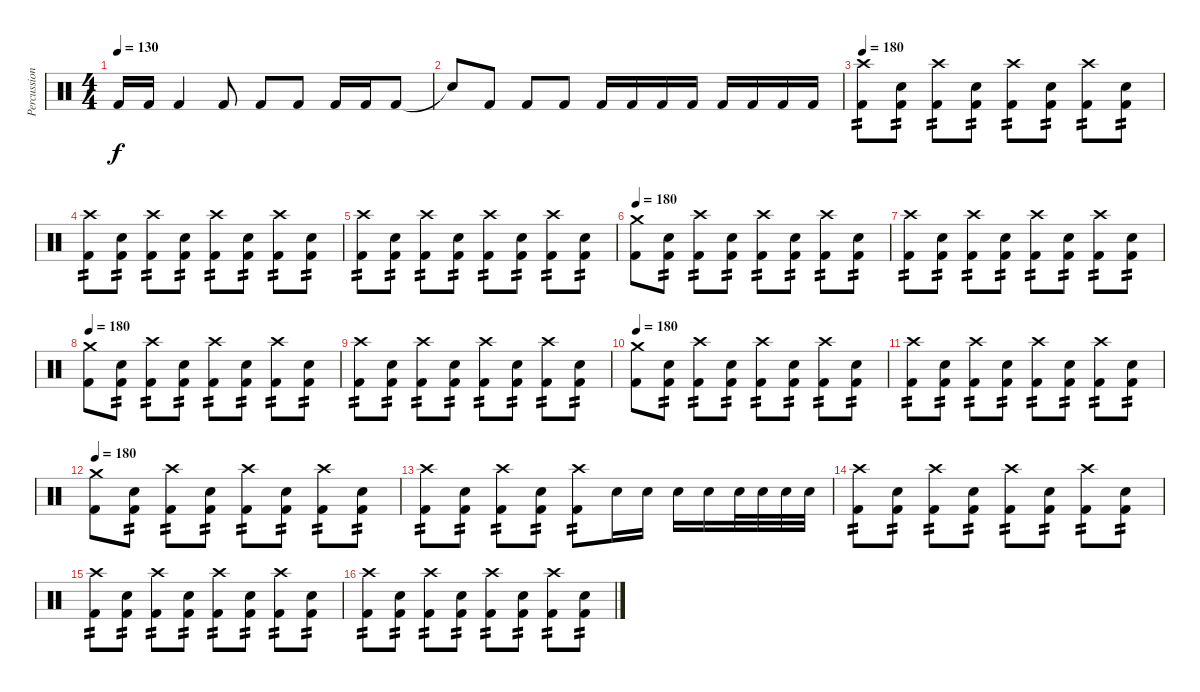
\track ("Percussion" "Percussion") {instrument percussion}
\staff {score}
\articulation defaults
\ts (4 4)
\tempo 130
\clef neutral
\ks c "Kick (hit) 2".16{dy f} "Kick (hit) 2".16 "Kick (hit) 2".4 "Kick (hit) 2".8 "Kick (hit) 2".8 "Kick (hit) 2".8 "Kick (hit) 2".16 "Kick (hit) 2".16 "Kick (hit) 2".8
|
"Snare (hit)"{t}.8 "Kick (hit) 2".8 "Kick (hit) 2".8 "Kick (hit) 2".8 "Kick (hit) 2".16 "Kick (hit) 2".16 "Kick (hit) 2".16 "Kick (hit) 2".16 "Kick (hit) 2".16 "Kick (hit) 2".16 "Kick (hit) 2".16 "Kick (hit) 2".16 |
\tempo 180
("Crash high (hit)" "Kick (hit) 2").8{tp 2} ("Electric Snare (hit)" "Kick (hit) 2").8{tp 2} ("Crash high (hit)" "Kick (hit) 2").8{tp 2} ("Electric Snare (hit)" "Kick (hit) 2").8{tp 2} ("Crash high (hit)" "Kick (hit) 2").8{tp 2} ("Electric Snare (hit)" "Kick (hit) 2").8{tp 2} ("Crash high (hit)" "Kick (hit) 2").8{tp 2} ("Electric Snare (hit)" "Kick (hit) 2").8{tp 2} |
("Crash high (hit)" "Kick (hit) 2").8{tp 2} ("Electric Snare (hit)" "Kick (hit) 2").8{tp 2} ("Crash high (hit)" "Kick (hit) 2").8{tp 2} ("Electric Snare (hit)" "Kick (hit) 2").8{tp 2} ("Crash high (hit)" "Kick (hit) 2").8{tp 2} ("Electric Snare (hit)" "Kick (hit) 2").8{tp 2} ("Crash high (hit)" "Kick (hit) 2").8{tp 2} ("Electric Snare (hit)" "Kick (hit) 2").8{tp 2} |
("Crash high (hit)" "Kick (hit) 2").8{tp 2} ("Electric Snare (hit)" "Kick (hit) 2").8{tp 2} ("Crash high (hit)" "Kick (hit) 2").8{tp 2} ("Electric Snare (hit)" "Kick (hit) 2").8{tp 2} ("Crash high (hit)" "Kick (hit) 2").8{tp 2} ("Electric Snare (hit)" "Kick (hit) 2").8{tp 2} ("Crash high (hit)" "Kick (hit) 2").8{tp 2} ("Electric Snare (hit)" "Kick (hit) 2").8{tp 2} |
\tempo 180
("Crash medium (hit)" "Kick (hit) 2").8 ("Electric Snare (hit)" "Kick (hit) 2").8{tp 2} ("Crash high (hit)" "Kick (hit) 2").8{tp 2} ("Electric Snare (hit)" "Kick (hit) 2").8{tp 2} ("Crash high (hit)" "Kick (hit) 2").8{tp 2} ("Electric Snare (hit)" "Kick (hit) 2").8{tp 2} ("Crash high (hit)" "Kick (hit) 2").8{tp 2} ("Electric Snare (hit)" "Kick (hit) 2").8{tp 2} |
("Crash high (hit)" "Kick (hit) 2").8{tp 2} ("Electric Snare (hit)" "Kick (hit) 2").8{tp 2} ("Crash high (hit)" "Kick (hit) 2").8{tp 2} ("Electric Snare (hit)" "Kick (hit) 2").8{tp 2} ("Crash high (hit)" "Kick (hit) 2").8{tp 2} ("Electric Snare (hit)" "Kick (hit) 2").8{tp 2} ("Crash high (hit)" "Kick (hit) 2").8{tp 2} ("Electric Snare (hit)" "Kick (hit) 2").8{tp 2} |
\tempo 180
("Crash medium (hit)" "Kick (hit) 2").8 ("Electric Snare (hit)" "Kick (hit) 2").8{tp 2} ("Crash high (hit)" "Kick (hit) 2").8{tp 2} ("Electric Snare (hit)" "Kick (hit) 2").8{tp 2} ("Crash high (hit)" "Kick (hit) 2").8{tp 2} ("Electric Snare (hit)" "Kick (hit) 2").8{tp 2} ("Crash high (hit)" "Kick (hit) 2").8{tp 2} ("Electric Snare (hit)" "Kick (hit) 2").8{tp 2} |
("Crash high (hit)" "Kick (hit) 2").8{tp 2} ("Electric Snare (hit)" "Kick (hit) 2").8{tp 2} ("Crash high (hit)" "Kick (hit) 2").8{tp 2} ("Electric Snare (hit)" "Kick (hit) 2").8{tp 2} ("Crash high (hit)" "Kick (hit) 2").8{tp 2} ("Electric Snare (hit)" "Kick (hit) 2").8{tp 2} ("Crash high (hit)" "Kick (hit) 2").8{tp 2} ("Electric Snare (hit)" "Kick (hit) 2").8{tp 2} |
\tempo 180
("Crash medium (hit)" "Kick (hit) 2").8 ("Electric Snare (hit)" "Kick (hit) 2").8{tp 2} ("Crash high (hit)" "Kick (hit) 2").8{tp 2} ("Electric Snare (hit)" "Kick (hit) 2").8{tp 2} ("Crash high (hit)" "Kick (hit) 2").8{tp 2} ("Electric Snare (hit)" "Kick (hit) 2").8{tp 2} ("Crash high (hit)" "Kick (hit) 2").8{tp 2} ("Electric Snare (hit)" "Kick (hit) 2").8{tp 2} |
("Crash high (hit)" "Kick (hit) 2").8{tp 2} ("Electric Snare (hit)" "Kick (hit) 2").8{tp 2} ("Crash high (hit)" "Kick (hit) 2").8{tp 2} ("Electric Snare (hit)" "Kick (hit) 2").8{tp 2} ("Crash high (hit)" "Kick (hit) 2").8{tp 2} ("Electric Snare (hit)" "Kick (hit) 2").8{tp 2} ("Crash high (hit)" "Kick (hit) 2").8{tp 2} ("Electric Snare (hit)" "Kick (hit) 2").8{tp 2} |
\tempo 180
("Crash medium (hit)" "Kick (hit) 2").8 ("Electric Snare (hit)" "Kick (hit) 2").8{tp 2} ("Crash high (hit)" "Kick (hit) 2").8{tp 2} ("Electric Snare (hit)" "Kick (hit) 2").8{tp 2} ("Crash high (hit)" "Kick (hit) 2").8{tp 2} ("Electric Snare (hit)" "Kick (hit) 2").8{tp 2} ("Crash high (hit)" "Kick (hit) 2").8{tp 2} ("Electric Snare (hit)" "Kick (hit) 2").8{tp 2} |
("Crash high (hit)" "Kick (hit) 2").8{tp 2} ("Electric Snare (hit)" "Kick (hit) 2").8{tp 2} ("Crash high (hit)" "Kick (hit) 2").8{tp 2} ("Electric Snare (hit)" "Kick (hit) 2").8{tp 2} ("Crash high (hit)" "Kick (hit) 2").8{tp 2} "Electric Snare (hit)".16 "Electric Snare (hit)".16 "Electric Snare (hit)".16 "Electric Snare (hit)".16 "Electric Snare (hit)".32 "Electric Snare (hit)".32 "Electric Snare (hit)".32 "Electric Snare (hit)".32 |
("Crash high (hit)" "Kick (hit) 2").8{tp 2} ("Electric Snare (hit)" "Kick (hit) 2").8{tp 2} ("Crash high (hit)" "Kick (hit) 2").8{tp 2} ("Electric Snare (hit)" "Kick (hit) 2").8{tp 2} ("Crash high (hit)" "Kick (hit) 2").8{tp 2} ("Electric Snare (hit)" "Kick (hit) 2").8{tp 2} ("Crash high (hit)" "Kick (hit) 2").8{tp 2} ("Electric Snare (hit)" "Kick (hit) 2").8{tp 2} |
("Crash high (hit)" "Kick (hit) 2").8{tp 2} ("Electric Snare (hit)" "Kick (hit) 2").8{tp 2} ("Crash high (hit)" "Kick (hit) 2").8{tp 2} ("Electric Snare (hit)" "Kick (hit) 2").8{tp 2} ("Crash high (hit)" "Kick (hit) 2").8{tp 2} ("Electric Snare (hit)" "Kick (hit) 2").8{tp 2} ("Crash high (hit)" "Kick (hit) 2").8{tp 2} ("Electric Snare (hit)" "Kick (hit) 2").8{tp 2} |
("Crash high (hit)" "Kick (hit) 2").8{tp 2} ("Electric Snare (hit)" "Kick (hit) 2").8{tp 2} ("Crash high (hit)" "Kick (hit) 2").8{tp 2} ("Electric Snare (hit)" "Kick (hit) 2").8{tp 2} ("Crash high (hit)" "Kick (hit) 2").8{tp 2} ("Electric Snare (hit)" "Kick (hit) 2").8{tp 2} ("Crash high (hit)" "Kick (hit) 2").8{tp 2} ("Electric Snare (hit)" "Kick (hit) 2").8{tp 2}
